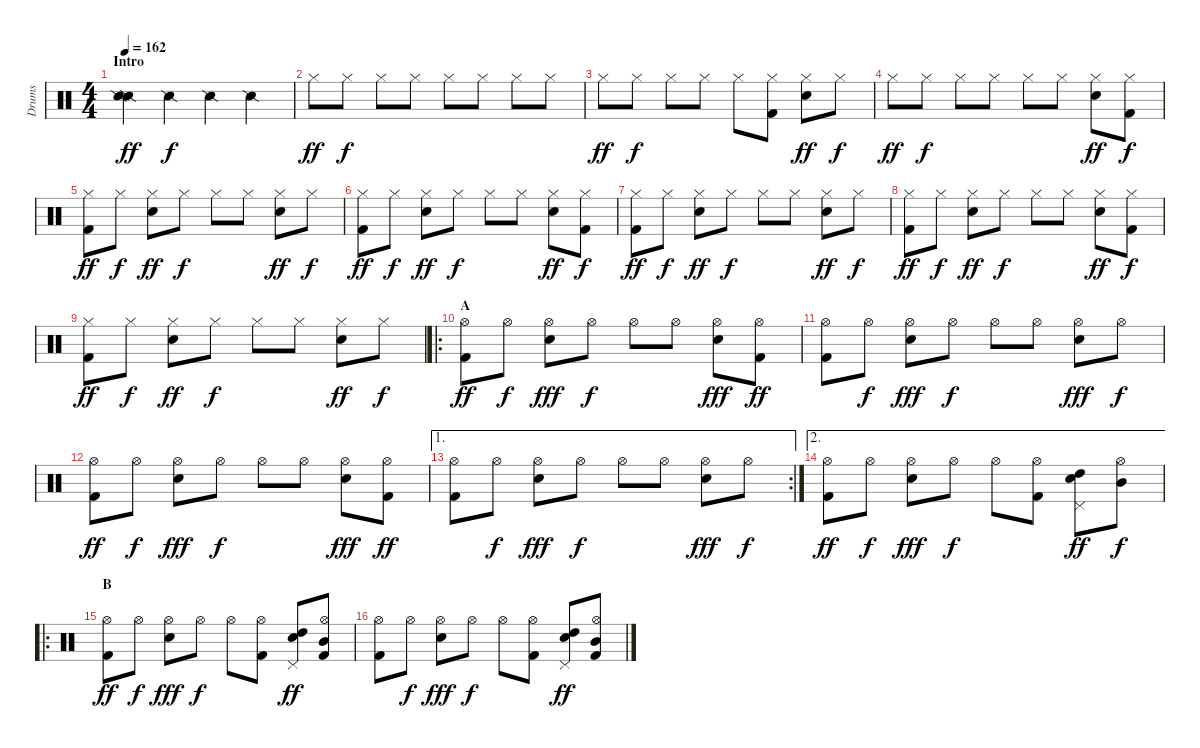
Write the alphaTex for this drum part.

\track ("Drums" "Drums") {instrument percussion}
\staff {score}
\articulation defaults
\ts (4 4)
\section ("" "Intro")
\tempo 162
\clef neutral
\ks c
("Snare (side stick) 2" "Snare (side stick) 2").4{dy ff} "Snare (side stick) 2".4{dy f} "Snare (side stick) 2".4 "Snare (side stick) 2".4 |
"Hi-Hat (closed)".8{dy ff} "Hi-Hat (closed)".8{dy f} "Hi-Hat (closed)".8 "Hi-Hat (closed)".8 "Hi-Hat (closed)".8 "Hi-Hat (closed)".8 "Hi-Hat (closed)".8 "Hi-Hat (closed)".8 |
"Hi-Hat (closed)".8{dy ff} "Hi-Hat (closed)".8{dy f} "Hi-Hat (closed)".8 "Hi-Hat (closed)".8 "Hi-Hat (closed)".8 ("Hi-Hat (closed)" "Kick (hit) 2").8 ("Hi-Hat (closed)" "Electric Snare (hit)").8{dy ff} "Hi-Hat (closed)".8{dy f} |
"Hi-Hat (closed)".8{dy ff} "Hi-Hat (closed)".8{dy f} "Hi-Hat (closed)".8 "Hi-Hat (closed)".8 "Hi-Hat (closed)".8 "Hi-Hat (closed)".8 ("Hi-Hat (closed)" "Electric Snare (hit)").8{dy ff} ("Hi-Hat (closed)" "Kick (hit) 2").8{dy f} |
("Hi-Hat (closed)" "Kick (hit) 2").8{dy ff} "Hi-Hat (closed)".8{dy f} ("Hi-Hat (closed)" "Electric Snare (hit)").8{dy ff} "Hi-Hat (closed)".8{dy f} "Hi-Hat (closed)".8 "Hi-Hat (closed)".8 ("Hi-Hat (closed)" "Electric Snare (hit)").8{dy ff} "Hi-Hat (closed)".8{dy f} |
("Hi-Hat (closed)" "Kick (hit) 2").8{dy ff} "Hi-Hat (closed)".8{dy f} ("Hi-Hat (closed)" "Electric Snare (hit)").8{dy ff} "Hi-Hat (closed)".8{dy f} "Hi-Hat (closed)".8 "Hi-Hat (closed)".8 ("Hi-Hat (closed)" "Electric Snare (hit)").8{dy ff} ("Hi-Hat (closed)" "Kick (hit) 2").8{dy f} |
("Hi-Hat (closed)" "Kick (hit) 2").8{dy ff} "Hi-Hat (closed)".8{dy f} ("Hi-Hat (closed)" "Electric Snare (hit)").8{dy ff} "Hi-Hat (closed)".8{dy f} "Hi-Hat (closed)".8 "Hi-Hat (closed)".8 ("Hi-Hat (closed)" "Electric Snare (hit)").8{dy ff} "Hi-Hat (closed)".8{dy f} |
("Hi-Hat (closed)" "Kick (hit) 2").8{dy ff} "Hi-Hat (closed)".8{dy f} ("Hi-Hat (closed)" "Electric Snare (hit)").8{dy ff} "Hi-Hat (closed)".8{dy f} "Hi-Hat (closed)".8 "Hi-Hat (closed)".8 ("Hi-Hat (closed)" "Electric Snare (hit)").8{dy ff} ("Hi-Hat (closed)" "Kick (hit) 2").8{dy f} |
("Hi-Hat (closed)" "Kick (hit) 2").8{dy ff} "Hi-Hat (closed)".8{dy f} ("Hi-Hat (closed)" "Electric Snare (hit)").8{dy ff} "Hi-Hat (closed)".8{dy f} "Hi-Hat (closed)".8 "Hi-Hat (closed)".8 ("Hi-Hat (closed)" "Electric Snare (hit)").8{dy ff} "Hi-Hat (closed)".8{dy f} |
\ro
\section ("" "A")
("Hi-Hat (open)" "Kick (hit) 2").8{dy ff} "Hi-Hat (open)".8{dy f} ("Hi-Hat (open)" "Electric Snare (hit)").8{dy fff} "Hi-Hat (open)".8{dy f} "Hi-Hat (open)".8 "Hi-Hat (open)".8 ("Hi-Hat (open)" "Electric Snare (hit)").8{dy fff} ("Hi-Hat (open)" "Kick (hit) 2").8{dy ff} |
("Hi-Hat (open)" "Kick (hit) 2").8 "Hi-Hat (open)".8{dy f} ("Hi-Hat (open)" "Electric Snare (hit)").8{dy fff} "Hi-Hat (open)".8{dy f} "Hi-Hat (open)".8 "Hi-Hat (open)".8 ("Hi-Hat (open)" "Electric Snare (hit)").8{dy fff} "Hi-Hat (open)".8{dy f} |
("Hi-Hat (open)" "Kick (hit) 2").8{dy ff} "Hi-Hat (open)".8{dy f} ("Hi-Hat (open)" "Electric Snare (hit)").8{dy fff} "Hi-Hat (open)".8{dy f} "Hi-Hat (open)".8 "Hi-Hat (open)".8 ("Hi-Hat (open)" "Electric Snare (hit)").8{dy fff} ("Hi-Hat (open)" "Kick (hit) 2").8{dy ff} |
\ae 1
\rc 2
("Hi-Hat (open)" "Kick (hit) 2").8 "Hi-Hat (open)".8{dy f} ("Hi-Hat (open)" "Electric Snare (hit)").8{dy fff} "Hi-Hat (open)".8{dy f} "Hi-Hat (open)".8 "Hi-Hat (open)".8 ("Hi-Hat (open)" "Electric Snare (hit)").8{dy fff} "Hi-Hat (open)".8{dy f} |
\ae 2
("Hi-Hat (open)" "Kick (hit) 2").8{dy ff} "Hi-Hat (open)".8{dy f} ("Hi-Hat (open)" "Electric Snare (hit)").8{dy fff} "Hi-Hat (open)".8{dy f} "Hi-Hat (open)".8 ("Hi-Hat (open)" "Kick (hit) 2").8 ("Pedal Hi-Hat (hit)" "High Tom (hit)" "Electric Snare (hit)").8{dy ff} ("Hi-Hat (open)" "Mid Tom (hit)").8{dy f} |
\ro
\section ("" "B")
("Hi-Hat (open)" "Kick (hit) 2").8{dy ff} "Hi-Hat (open)".8{dy f} ("Hi-Hat (open)" "Electric Snare (hit)").8{dy fff} "Hi-Hat (open)".8{dy f} "Hi-Hat (open)".8 ("Hi-Hat (open)" "Kick (hit) 2").8 ("Pedal Hi-Hat (hit)" "High Tom (hit)" "Electric Snare (hit)").8{dy ff} ("Hi-Hat (open)" "Mid Tom (hit)" "Kick (hit) 2").8 |
("Hi-Hat (open)" "Kick (hit) 2").8 "Hi-Hat (open)".8{dy f} ("Hi-Hat (open)" "Electric Snare (hit)").8{dy fff} "Hi-Hat (open)".8{dy f} "Hi-Hat (open)".8 ("Hi-Hat (open)" "Kick (hit) 2").8 ("Pedal Hi-Hat (hit)" "High Tom (hit)" "Electric Snare (hit)").8{dy ff} ("Hi-Hat (open)" "Mid Tom (hit)" "Kick (hit) 2").8
